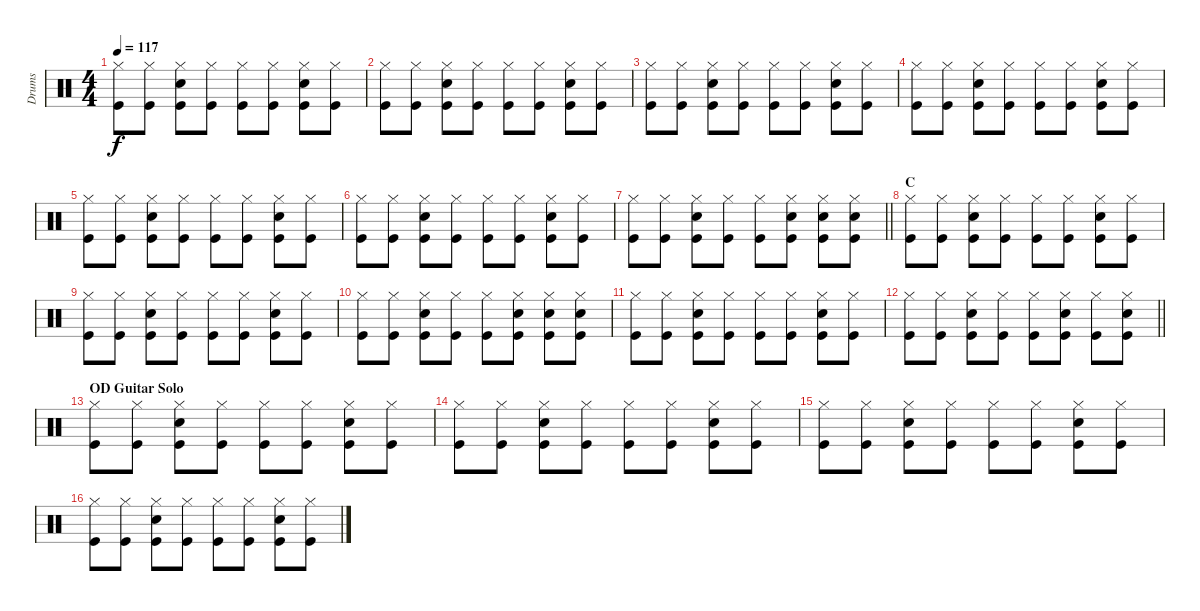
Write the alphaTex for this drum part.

\track ("Drums" "Drums") {instrument percussion}
\staff {score}
\articulation defaults
\ts (4 4)
\tempo 117
\clef neutral
\ks c
("Hi-Hat (closed)" "Kick (hit)").8{dy f} ("Hi-Hat (closed)" "Kick (hit)").8 ("Hi-Hat (closed)" "Electric Snare (hit)" "Kick (hit)").8 ("Hi-Hat (closed)" "Kick (hit)").8 ("Hi-Hat (closed)" "Kick (hit)").8 ("Hi-Hat (closed)" "Kick (hit)").8 ("Hi-Hat (closed)" "Electric Snare (hit)" "Kick (hit)").8 ("Hi-Hat (closed)" "Kick (hit)").8 |
("Hi-Hat (closed)" "Kick (hit)").8 ("Hi-Hat (closed)" "Kick (hit)").8 ("Hi-Hat (closed)" "Electric Snare (hit)" "Kick (hit)").8 ("Hi-Hat (closed)" "Kick (hit)").8 ("Hi-Hat (closed)" "Kick (hit)").8 ("Hi-Hat (closed)" "Kick (hit)").8 ("Hi-Hat (closed)" "Electric Snare (hit)" "Kick (hit)").8 ("Hi-Hat (closed)" "Kick (hit)").8 |
("Hi-Hat (closed)" "Kick (hit)").8 ("Hi-Hat (closed)" "Kick (hit)").8 ("Hi-Hat (closed)" "Electric Snare (hit)" "Kick (hit)").8 ("Hi-Hat (closed)" "Kick (hit)").8 ("Hi-Hat (closed)" "Kick (hit)").8 ("Hi-Hat (closed)" "Kick (hit)").8 ("Hi-Hat (closed)" "Electric Snare (hit)" "Kick (hit)").8 ("Hi-Hat (closed)" "Kick (hit)").8 |
("Hi-Hat (closed)" "Kick (hit)").8 ("Hi-Hat (closed)" "Kick (hit)").8 ("Hi-Hat (closed)" "Electric Snare (hit)" "Kick (hit)").8 ("Hi-Hat (closed)" "Kick (hit)").8 ("Hi-Hat (closed)" "Kick (hit)").8 ("Hi-Hat (closed)" "Kick (hit)").8 ("Hi-Hat (closed)" "Electric Snare (hit)" "Kick (hit)").8 ("Hi-Hat (closed)" "Kick (hit)").8 |
("Hi-Hat (closed)" "Kick (hit)").8 ("Hi-Hat (closed)" "Kick (hit)").8 ("Hi-Hat (closed)" "Electric Snare (hit)" "Kick (hit)").8 ("Hi-Hat (closed)" "Kick (hit)").8 ("Hi-Hat (closed)" "Kick (hit)").8 ("Hi-Hat (closed)" "Kick (hit)").8 ("Hi-Hat (closed)" "Electric Snare (hit)" "Kick (hit)").8 ("Hi-Hat (closed)" "Kick (hit)").8 |
("Hi-Hat (closed)" "Kick (hit)").8 ("Hi-Hat (closed)" "Kick (hit)").8 ("Hi-Hat (closed)" "Electric Snare (hit)" "Kick (hit)").8 ("Hi-Hat (closed)" "Kick (hit)").8 ("Hi-Hat (closed)" "Kick (hit)").8 ("Hi-Hat (closed)" "Kick (hit)").8 ("Hi-Hat (closed)" "Electric Snare (hit)" "Kick (hit)").8 ("Hi-Hat (closed)" "Kick (hit)").8 |
\barLineRight lightlight
("Hi-Hat (closed)" "Kick (hit)").8 ("Hi-Hat (closed)" "Kick (hit)").8 ("Hi-Hat (closed)" "Electric Snare (hit)" "Kick (hit)").8 ("Hi-Hat (closed)" "Kick (hit)").8 ("Hi-Hat (closed)" "Kick (hit)").8 ("Hi-Hat (closed)" "Electric Snare (hit)" "Kick (hit)").8 ("Hi-Hat (closed)" "Electric Snare (hit)" "Kick (hit)").8 ("Hi-Hat (closed)" "Electric Snare (hit)" "Kick (hit)").8 |
\section ("" "C")
("Hi-Hat (closed)" "Kick (hit)").8 ("Hi-Hat (closed)" "Kick (hit)").8 ("Hi-Hat (closed)" "Electric Snare (hit)" "Kick (hit)").8 ("Hi-Hat (closed)" "Kick (hit)").8 ("Hi-Hat (closed)" "Kick (hit)").8 ("Hi-Hat (closed)" "Kick (hit)").8 ("Hi-Hat (closed)" "Electric Snare (hit)" "Kick (hit)").8 ("Hi-Hat (closed)" "Kick (hit)").8 |
("Hi-Hat (closed)" "Kick (hit)").8 ("Hi-Hat (closed)" "Kick (hit)").8 ("Hi-Hat (closed)" "Electric Snare (hit)" "Kick (hit)").8 ("Hi-Hat (closed)" "Kick (hit)").8 ("Hi-Hat (closed)" "Kick (hit)").8 ("Hi-Hat (closed)" "Kick (hit)").8 ("Hi-Hat (closed)" "Electric Snare (hit)" "Kick (hit)").8 ("Hi-Hat (closed)" "Kick (hit)").8 |
("Hi-Hat (closed)" "Kick (hit)").8 ("Hi-Hat (closed)" "Kick (hit)").8 ("Hi-Hat (closed)" "Electric Snare (hit)" "Kick (hit)").8 ("Hi-Hat (closed)" "Kick (hit)").8 ("Hi-Hat (closed)" "Kick (hit)").8 ("Hi-Hat (closed)" "Electric Snare (hit)" "Kick (hit)").8 ("Hi-Hat (closed)" "Electric Snare (hit)" "Kick (hit)").8 ("Hi-Hat (closed)" "Electric Snare (hit)" "Kick (hit)").8 |
("Hi-Hat (closed)" "Kick (hit)").8 ("Hi-Hat (closed)" "Kick (hit)").8 ("Hi-Hat (closed)" "Electric Snare (hit)" "Kick (hit)").8 ("Hi-Hat (closed)" "Kick (hit)").8 ("Hi-Hat (closed)" "Kick (hit)").8 ("Hi-Hat (closed)" "Kick (hit)").8 ("Hi-Hat (closed)" "Electric Snare (hit)" "Kick (hit)").8 ("Hi-Hat (closed)" "Kick (hit)").8 |
\barLineRight lightlight
("Hi-Hat (closed)" "Kick (hit)").8 ("Hi-Hat (closed)" "Kick (hit)").8 ("Hi-Hat (closed)" "Electric Snare (hit)" "Kick (hit)").8 ("Hi-Hat (closed)" "Kick (hit)").8 ("Hi-Hat (closed)" "Kick (hit)").8 ("Hi-Hat (closed)" "Electric Snare (hit)" "Kick (hit)").8 ("Hi-Hat (closed)" "Kick (hit)").8 ("Hi-Hat (closed)" "Electric Snare (hit)" "Kick (hit)").8 |
\section ("" "OD Guitar Solo")
("Hi-Hat (closed)" "Kick (hit)").8 ("Hi-Hat (closed)" "Kick (hit)").8 ("Hi-Hat (closed)" "Electric Snare (hit)" "Kick (hit)").8 ("Hi-Hat (closed)" "Kick (hit)").8 ("Hi-Hat (closed)" "Kick (hit)").8 ("Hi-Hat (closed)" "Kick (hit)").8 ("Hi-Hat (closed)" "Electric Snare (hit)" "Kick (hit)").8 ("Hi-Hat (closed)" "Kick (hit)").8 |
("Hi-Hat (closed)" "Kick (hit)").8 ("Hi-Hat (closed)" "Kick (hit)").8 ("Hi-Hat (closed)" "Electric Snare (hit)" "Kick (hit)").8 ("Hi-Hat (closed)" "Kick (hit)").8 ("Hi-Hat (closed)" "Kick (hit)").8 ("Hi-Hat (closed)" "Kick (hit)").8 ("Hi-Hat (closed)" "Electric Snare (hit)" "Kick (hit)").8 ("Hi-Hat (closed)" "Kick (hit)").8 |
("Hi-Hat (closed)" "Kick (hit)").8 ("Hi-Hat (closed)" "Kick (hit)").8 ("Hi-Hat (closed)" "Electric Snare (hit)" "Kick (hit)").8 ("Hi-Hat (closed)" "Kick (hit)").8 ("Hi-Hat (closed)" "Kick (hit)").8 ("Hi-Hat (closed)" "Kick (hit)").8 ("Hi-Hat (closed)" "Electric Snare (hit)" "Kick (hit)").8 ("Hi-Hat (closed)" "Kick (hit)").8 |
("Hi-Hat (closed)" "Kick (hit)").8 ("Hi-Hat (closed)" "Kick (hit)").8 ("Hi-Hat (closed)" "Electric Snare (hit)" "Kick (hit)").8 ("Hi-Hat (closed)" "Kick (hit)").8 ("Hi-Hat (closed)" "Kick (hit)").8 ("Hi-Hat (closed)" "Kick (hit)").8 ("Hi-Hat (closed)" "Electric Snare (hit)" "Kick (hit)").8 ("Hi-Hat (closed)" "Kick (hit)").8
